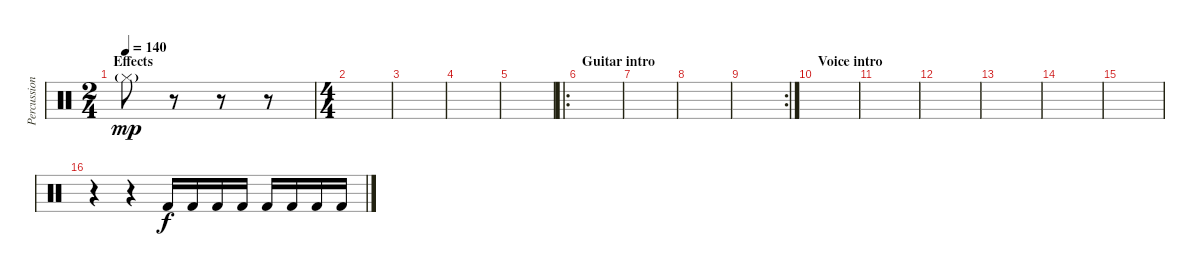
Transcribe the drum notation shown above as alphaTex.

\track ("Percussion" "Percussion") {instrument percussion}
\staff {score}
\articulation defaults
\ts (2 4)
\section ("" "Effects")
\tempo 140
\clef neutral
\ks c "Hi-Hat (closed)"{g}.8{dy mp}
r.8 r.8 r.8 |
\ts (4 4)
|
|
|
|
\ro
\section ("" "Guitar intro")
|
|
|
\rc 2
|
\section ("" "Voice intro")
|
|
|
|
|
|
r.4{volume 13} r.4 "Kick (hit) 2".16{dy f} "Kick (hit) 2".16 "Kick (hit) 2".16 "Kick (hit) 2".16 "Kick (hit) 2".16 "Kick (hit) 2".16 "Kick (hit) 2".16 "Kick (hit) 2".16
